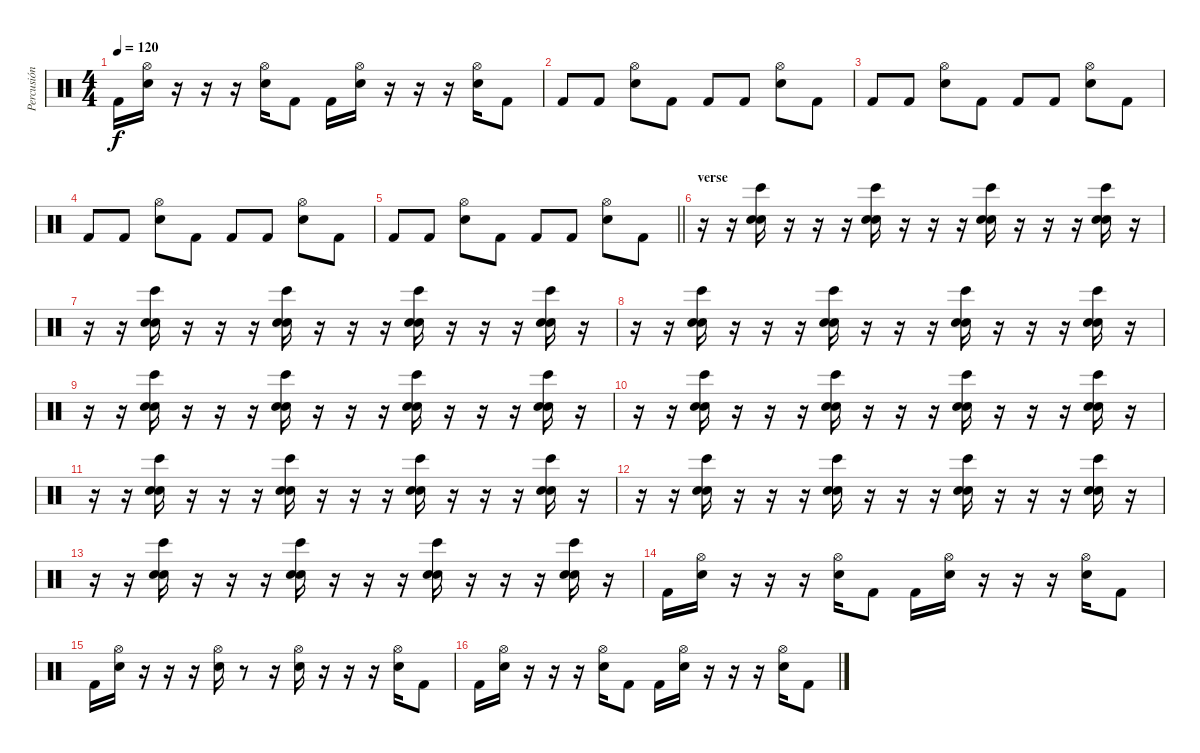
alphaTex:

\track ("Percusión" "Percusión") {instrument percussion}
\staff {score}
\articulation defaults
\ts (4 4)
\tempo 120
\clef neutral
\ks c "Kick (hit) 2".16{dy f}
("Hi-Hat (open)" "Electric Snare (hit)").16 r.16 r.16 r.16 ("Hi-Hat (open)" "Electric Snare (hit)").16 "Kick (hit) 2".8 "Kick (hit) 2".16 ("Hi-Hat (open)" "Electric Snare (hit)").16 r.16 r.16 r.16 ("Hi-Hat (open)" "Electric Snare (hit)").16 "Kick (hit) 2".8 |
"Kick (hit) 2".8 "Kick (hit) 2".8 ("Hi-Hat (open)" "Electric Snare (hit)").8 "Kick (hit) 2".8 "Kick (hit) 2".8 "Kick (hit) 2".8 ("Hi-Hat (open)" "Electric Snare (hit)").8 "Kick (hit) 2".8 |
"Kick (hit) 2".8 "Kick (hit) 2".8 ("Hi-Hat (open)" "Electric Snare (hit)").8 "Kick (hit) 2".8 "Kick (hit) 2".8 "Kick (hit) 2".8 ("Hi-Hat (open)" "Electric Snare (hit)").8 "Kick (hit) 2".8 |
"Kick (hit) 2".8 "Kick (hit) 2".8 ("Hi-Hat (open)" "Electric Snare (hit)").8 "Kick (hit) 2".8 "Kick (hit) 2".8 "Kick (hit) 2".8 ("Hi-Hat (open)" "Electric Snare (hit)").8 "Kick (hit) 2".8 |
\barLineRight lightlight "Kick (hit) 2".8 "Kick (hit) 2".8
("Hi-Hat (open)" "Electric Snare (hit)").8 "Kick (hit) 2".8 "Kick (hit) 2".8 "Kick (hit) 2".8 ("Hi-Hat (open)" "Electric Snare (hit)").8 "Kick (hit) 2".8 |
\section ("" "verse")
r.16 r.16 ("Bongo High (hit)" "Hand Clap (hit)" "Electric Snare (hit)").16 r.16 r.16 r.16 ("Bongo High (hit)" "Hand Clap (hit)" "Electric Snare (hit)").16 r.16 r.16 r.16 ("Bongo High (hit)" "Hand Clap (hit)" "Electric Snare (hit)").16 r.16 r.16 r.16 ("Bongo High (hit)" "Hand Clap (hit)" "Electric Snare (hit)").16 r.16 |
r.16 r.16 ("Bongo High (hit)" "Hand Clap (hit)" "Electric Snare (hit)").16 r.16 r.16 r.16 ("Bongo High (hit)" "Hand Clap (hit)" "Electric Snare (hit)").16 r.16 r.16 r.16 ("Bongo High (hit)" "Hand Clap (hit)" "Electric Snare (hit)").16 r.16 r.16 r.16 ("Bongo High (hit)" "Hand Clap (hit)" "Electric Snare (hit)").16 r.16 |
r.16 r.16 ("Bongo High (hit)" "Hand Clap (hit)" "Electric Snare (hit)").16 r.16 r.16 r.16 ("Bongo High (hit)" "Hand Clap (hit)" "Electric Snare (hit)").16 r.16 r.16 r.16 ("Bongo High (hit)" "Hand Clap (hit)" "Electric Snare (hit)").16 r.16 r.16 r.16 ("Bongo High (hit)" "Hand Clap (hit)" "Electric Snare (hit)").16 r.16 |
r.16 r.16 ("Bongo High (hit)" "Hand Clap (hit)" "Electric Snare (hit)").16 r.16 r.16 r.16 ("Bongo High (hit)" "Hand Clap (hit)" "Electric Snare (hit)").16 r.16 r.16 r.16 ("Bongo High (hit)" "Hand Clap (hit)" "Electric Snare (hit)").16 r.16 r.16 r.16 ("Bongo High (hit)" "Hand Clap (hit)" "Electric Snare (hit)").16 r.16 |
r.16 r.16 ("Bongo High (hit)" "Hand Clap (hit)" "Electric Snare (hit)").16 r.16 r.16 r.16 ("Bongo High (hit)" "Hand Clap (hit)" "Electric Snare (hit)").16 r.16 r.16 r.16 ("Bongo High (hit)" "Hand Clap (hit)" "Electric Snare (hit)").16 r.16 r.16 r.16 ("Bongo High (hit)" "Hand Clap (hit)" "Electric Snare (hit)").16 r.16 |
r.16 r.16 ("Bongo High (hit)" "Hand Clap (hit)" "Electric Snare (hit)").16 r.16 r.16 r.16 ("Bongo High (hit)" "Hand Clap (hit)" "Electric Snare (hit)").16 r.16 r.16 r.16 ("Bongo High (hit)" "Hand Clap (hit)" "Electric Snare (hit)").16 r.16 r.16 r.16 ("Bongo High (hit)" "Hand Clap (hit)" "Electric Snare (hit)").16 r.16 |
r.16 r.16 ("Bongo High (hit)" "Hand Clap (hit)" "Electric Snare (hit)").16 r.16 r.16 r.16 ("Bongo High (hit)" "Hand Clap (hit)" "Electric Snare (hit)").16 r.16 r.16 r.16 ("Bongo High (hit)" "Hand Clap (hit)" "Electric Snare (hit)").16 r.16 r.16 r.16 ("Bongo High (hit)" "Hand Clap (hit)" "Electric Snare (hit)").16 r.16 |
r.16 r.16 ("Bongo High (hit)" "Hand Clap (hit)" "Electric Snare (hit)").16 r.16 r.16 r.16 ("Bongo High (hit)" "Hand Clap (hit)" "Electric Snare (hit)").16 r.16 r.16 r.16 ("Bongo High (hit)" "Hand Clap (hit)" "Electric Snare (hit)").16 r.16 r.16 r.16 ("Bongo High (hit)" "Hand Clap (hit)" "Electric Snare (hit)").16 r.16 |
"Kick (hit) 2".16 ("Hi-Hat (open)" "Electric Snare (hit)").16 r.16 r.16 r.16 ("Hi-Hat (open)" "Electric Snare (hit)").16 "Kick (hit) 2".8 "Kick (hit) 2".16 ("Hi-Hat (open)" "Electric Snare (hit)").16 r.16 r.16 r.16 ("Hi-Hat (open)" "Electric Snare (hit)").16 "Kick (hit) 2".8 |
"Kick (hit) 2".16 ("Hi-Hat (open)" "Electric Snare (hit)").16 r.16 r.16 r.16 ("Hi-Hat (open)" "Electric Snare (hit)").16 r.8 r.16 ("Hi-Hat (open)" "Electric Snare (hit)").16 r.16 r.16 r.16 ("Hi-Hat (open)" "Electric Snare (hit)").16 "Kick (hit) 2".8 |
"Kick (hit) 2".16 ("Hi-Hat (open)" "Electric Snare (hit)").16 r.16 r.16 r.16 ("Hi-Hat (open)" "Electric Snare (hit)").16 "Kick (hit) 2".8 "Kick (hit) 2".16 ("Hi-Hat (open)" "Electric Snare (hit)").16 r.16 r.16 r.16 ("Hi-Hat (open)" "Electric Snare (hit)").16 "Kick (hit) 2".8
